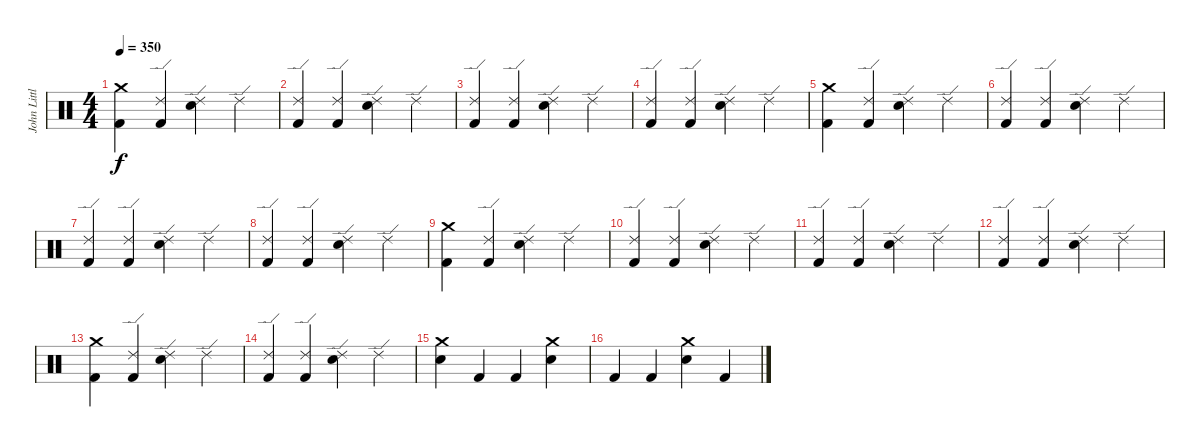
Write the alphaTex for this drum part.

\track ("John Littler - Drums" "John Littl") {instrument percussion}
\staff {score}
\articulation defaults
\ts (4 4)
\tempo 350
\clef neutral
\ks c
("Crash medium (hit)" "Kick (hit) 2").4{dy f} ("Ride (edge) 2" "Kick (hit) 2").4 ("Ride (edge) 2" "Snare (hit) 2").4 "Ride (edge) 2".4 |
("Ride (edge) 2" "Kick (hit) 2").4 ("Ride (edge) 2" "Kick (hit) 2").4 ("Ride (edge) 2" "Snare (hit) 2").4 "Ride (edge) 2".4 |
("Ride (edge) 2" "Kick (hit) 2").4 ("Ride (edge) 2" "Kick (hit) 2").4 ("Ride (edge) 2" "Snare (hit) 2").4 "Ride (edge) 2".4 |
("Ride (edge) 2" "Kick (hit) 2").4 ("Ride (edge) 2" "Kick (hit) 2").4 ("Ride (edge) 2" "Snare (hit) 2").4 "Ride (edge) 2".4 |
("Crash medium (hit)" "Kick (hit) 2").4 ("Ride (edge) 2" "Kick (hit) 2").4 ("Ride (edge) 2" "Snare (hit) 2").4 "Ride (edge) 2".4 |
("Ride (edge) 2" "Kick (hit) 2").4 ("Ride (edge) 2" "Kick (hit) 2").4 ("Ride (edge) 2" "Snare (hit) 2").4 "Ride (edge) 2".4 |
("Ride (edge) 2" "Kick (hit) 2").4 ("Ride (edge) 2" "Kick (hit) 2").4 ("Ride (edge) 2" "Snare (hit) 2").4 "Ride (edge) 2".4 |
("Ride (edge) 2" "Kick (hit) 2").4 ("Ride (edge) 2" "Kick (hit) 2").4 ("Ride (edge) 2" "Snare (hit) 2").4 "Ride (edge) 2".4 |
("Crash medium (hit)" "Kick (hit) 2").4 ("Ride (edge) 2" "Kick (hit) 2").4 ("Ride (edge) 2" "Snare (hit) 2").4 "Ride (edge) 2".4 |
("Ride (edge) 2" "Kick (hit) 2").4 ("Ride (edge) 2" "Kick (hit) 2").4 ("Ride (edge) 2" "Snare (hit) 2").4 "Ride (edge) 2".4 |
("Ride (edge) 2" "Kick (hit) 2").4 ("Ride (edge) 2" "Kick (hit) 2").4 ("Ride (edge) 2" "Snare (hit) 2").4 "Ride (edge) 2".4 |
("Ride (edge) 2" "Kick (hit) 2").4 ("Ride (edge) 2" "Kick (hit) 2").4 ("Ride (edge) 2" "Snare (hit) 2").4 "Ride (edge) 2".4 |
("Crash medium (hit)" "Kick (hit) 2").4 ("Ride (edge) 2" "Kick (hit) 2").4 ("Ride (edge) 2" "Snare (hit) 2").4 "Ride (edge) 2".4 |
("Ride (edge) 2" "Kick (hit) 2").4 ("Ride (edge) 2" "Kick (hit) 2").4 ("Ride (edge) 2" "Snare (hit) 2").4 "Ride (edge) 2".4 |
("Crash medium (hit)" "Snare (hit) 2").4 "Kick (hit) 2".4 "Kick (hit) 2".4 ("Crash medium (hit)" "Snare (hit) 2").4 |
"Kick (hit) 2".4 "Kick (hit) 2".4 ("Crash medium (hit)" "Snare (hit) 2").4 "Kick (hit) 2".4
